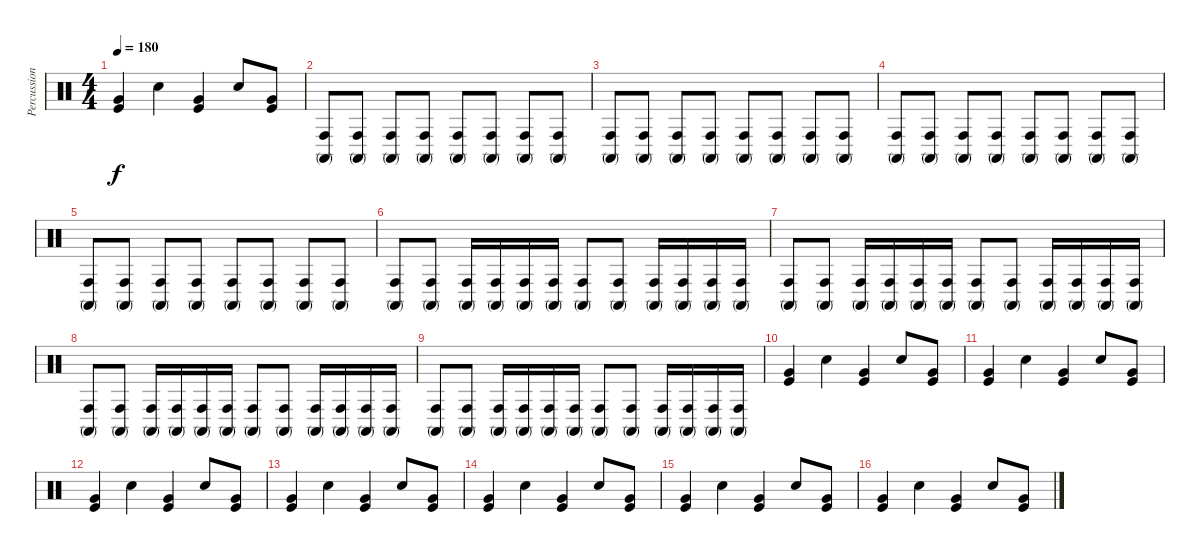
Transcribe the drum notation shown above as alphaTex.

\track ("Percussions" "Percussion") {instrument percussion}
\staff {score}
\articulation defaults
\ts (4 4)
\tempo 180
\clef neutral
\ks c
("Very Low Tom (hit)" "Kick (hit)").4{dy f} "Hand Clap (hit)".4 ("Very Low Tom (hit)" "Kick (hit)").4 "Hand Clap (hit)".8 ("Very Low Tom (hit)" "Kick (hit)").8 |
("Conga high (hit)" "Conga high (mute)").8 ("Conga high (hit)" "Conga high (mute)").8 ("Conga high (hit)" "Conga high (mute)").8 ("Conga high (hit)" "Conga high (mute)").8 ("Conga high (hit)" "Conga high (mute)").8 ("Conga high (hit)" "Conga high (mute)").8 ("Conga high (hit)" "Conga high (mute)").8 ("Conga high (hit)" "Conga high (mute)").8 |
("Conga high (hit)" "Conga high (mute)").8 ("Conga high (hit)" "Conga high (mute)").8 ("Conga high (hit)" "Conga high (mute)").8 ("Conga high (hit)" "Conga high (mute)").8 ("Conga high (hit)" "Conga high (mute)").8 ("Conga high (hit)" "Conga high (mute)").8 ("Conga high (hit)" "Conga high (mute)").8 ("Conga high (hit)" "Conga high (mute)").8 |
("Conga high (hit)" "Conga high (mute)").8 ("Conga high (hit)" "Conga high (mute)").8 ("Conga high (hit)" "Conga high (mute)").8 ("Conga high (hit)" "Conga high (mute)").8 ("Conga high (hit)" "Conga high (mute)").8 ("Conga high (hit)" "Conga high (mute)").8 ("Conga high (hit)" "Conga high (mute)").8 ("Conga high (hit)" "Conga high (mute)").8 |
("Conga high (hit)" "Conga high (mute)").8 ("Conga high (hit)" "Conga high (mute)").8 ("Conga high (hit)" "Conga high (mute)").8 ("Conga high (hit)" "Conga high (mute)").8 ("Conga high (hit)" "Conga high (mute)").8 ("Conga high (hit)" "Conga high (mute)").8 ("Conga high (hit)" "Conga high (mute)").8 ("Conga high (hit)" "Conga high (mute)").8 |
("Conga high (hit)" "Conga high (mute)").8 ("Conga high (hit)" "Conga high (mute)").8 ("Conga high (hit)" "Conga high (mute)").16 ("Conga high (hit)" "Conga high (mute)").16 ("Conga high (hit)" "Conga high (mute)").16 ("Conga high (hit)" "Conga high (mute)").16 ("Conga high (hit)" "Conga high (mute)").8 ("Conga high (hit)" "Conga high (mute)").8 ("Conga high (hit)" "Conga high (mute)").16 ("Conga high (hit)" "Conga high (mute)").16 ("Conga high (hit)" "Conga high (mute)").16 ("Conga high (hit)" "Conga high (mute)").16 |
("Conga high (hit)" "Conga high (mute)").8 ("Conga high (hit)" "Conga high (mute)").8 ("Conga high (hit)" "Conga high (mute)").16 ("Conga high (hit)" "Conga high (mute)").16 ("Conga high (hit)" "Conga high (mute)").16 ("Conga high (hit)" "Conga high (mute)").16 ("Conga high (hit)" "Conga high (mute)").8 ("Conga high (hit)" "Conga high (mute)").8 ("Conga high (hit)" "Conga high (mute)").16 ("Conga high (hit)" "Conga high (mute)").16 ("Conga high (hit)" "Conga high (mute)").16 ("Conga high (hit)" "Conga high (mute)").16 |
("Conga high (hit)" "Conga high (mute)").8 ("Conga high (hit)" "Conga high (mute)").8 ("Conga high (hit)" "Conga high (mute)").16 ("Conga high (hit)" "Conga high (mute)").16 ("Conga high (hit)" "Conga high (mute)").16 ("Conga high (hit)" "Conga high (mute)").16 ("Conga high (hit)" "Conga high (mute)").8 ("Conga high (hit)" "Conga high (mute)").8 ("Conga high (hit)" "Conga high (mute)").16 ("Conga high (hit)" "Conga high (mute)").16 ("Conga high (hit)" "Conga high (mute)").16 ("Conga high (hit)" "Conga high (mute)").16 |
("Conga high (hit)" "Conga high (mute)").8 ("Conga high (hit)" "Conga high (mute)").8 ("Conga high (hit)" "Conga high (mute)").16 ("Conga high (hit)" "Conga high (mute)").16 ("Conga high (hit)" "Conga high (mute)").16 ("Conga high (hit)" "Conga high (mute)").16 ("Conga high (hit)" "Conga high (mute)").8 ("Conga high (hit)" "Conga high (mute)").8 ("Conga high (hit)" "Conga high (mute)").16 ("Conga high (hit)" "Conga high (mute)").16 ("Conga high (hit)" "Conga high (mute)").16 ("Conga high (hit)" "Conga high (mute)").16 |
("Very Low Tom (hit)" "Kick (hit)").4 "Hand Clap (hit)".4 ("Very Low Tom (hit)" "Kick (hit)").4 "Hand Clap (hit)".8 ("Very Low Tom (hit)" "Kick (hit)").8 |
("Very Low Tom (hit)" "Kick (hit)").4 "Hand Clap (hit)".4 ("Very Low Tom (hit)" "Kick (hit)").4 "Hand Clap (hit)".8 ("Very Low Tom (hit)" "Kick (hit)").8 |
("Very Low Tom (hit)" "Kick (hit)").4 "Hand Clap (hit)".4 ("Very Low Tom (hit)" "Kick (hit)").4 "Hand Clap (hit)".8 ("Very Low Tom (hit)" "Kick (hit)").8 |
("Very Low Tom (hit)" "Kick (hit)").4 "Hand Clap (hit)".4 ("Very Low Tom (hit)" "Kick (hit)").4 "Hand Clap (hit)".8 ("Very Low Tom (hit)" "Kick (hit)").8 |
("Very Low Tom (hit)" "Kick (hit)").4 "Hand Clap (hit)".4 ("Very Low Tom (hit)" "Kick (hit)").4 "Hand Clap (hit)".8 ("Very Low Tom (hit)" "Kick (hit)").8 |
("Very Low Tom (hit)" "Kick (hit)").4 "Hand Clap (hit)".4 ("Very Low Tom (hit)" "Kick (hit)").4 "Hand Clap (hit)".8 ("Very Low Tom (hit)" "Kick (hit)").8 |
("Very Low Tom (hit)" "Kick (hit)").4 "Hand Clap (hit)".4 ("Very Low Tom (hit)" "Kick (hit)").4 "Hand Clap (hit)".8 ("Very Low Tom (hit)" "Kick (hit)").8
